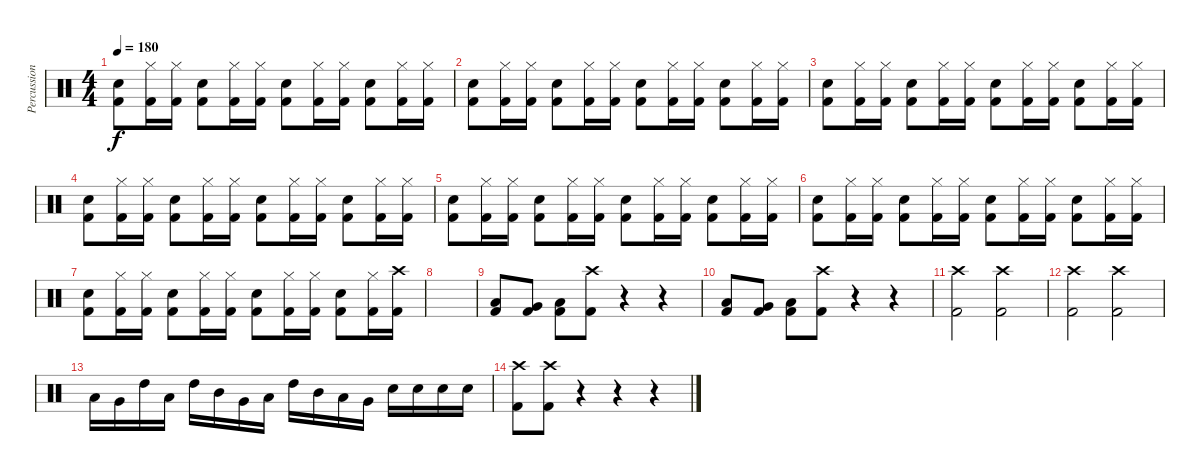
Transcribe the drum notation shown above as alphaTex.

\track ("Percussion" "Percussion") {instrument percussion}
\staff {score}
\articulation defaults
\ts (4 4)
\tempo 180
\clef neutral
\ks c
("Electric Snare (hit)" "Kick (hit) 2").8{dy f} ("Hi-Hat (closed)" "Kick (hit) 2").16 ("Hi-Hat (closed)" "Kick (hit) 2").16 ("Electric Snare (hit)" "Kick (hit) 2").8 ("Hi-Hat (closed)" "Kick (hit) 2").16 ("Hi-Hat (closed)" "Kick (hit) 2").16 ("Electric Snare (hit)" "Kick (hit) 2").8 ("Hi-Hat (closed)" "Kick (hit) 2").16 ("Hi-Hat (closed)" "Kick (hit) 2").16 ("Electric Snare (hit)" "Kick (hit) 2").8 ("Hi-Hat (closed)" "Kick (hit) 2").16 ("Hi-Hat (closed)" "Kick (hit) 2").16 |
("Electric Snare (hit)" "Kick (hit) 2").8 ("Hi-Hat (closed)" "Kick (hit) 2").16 ("Hi-Hat (closed)" "Kick (hit) 2").16 ("Electric Snare (hit)" "Kick (hit) 2").8 ("Hi-Hat (closed)" "Kick (hit) 2").16 ("Hi-Hat (closed)" "Kick (hit) 2").16 ("Electric Snare (hit)" "Kick (hit) 2").8 ("Hi-Hat (closed)" "Kick (hit) 2").16 ("Hi-Hat (closed)" "Kick (hit) 2").16 ("Electric Snare (hit)" "Kick (hit) 2").8 ("Hi-Hat (closed)" "Kick (hit) 2").16 ("Hi-Hat (closed)" "Kick (hit) 2").16 |
("Electric Snare (hit)" "Kick (hit) 2").8 ("Hi-Hat (closed)" "Kick (hit) 2").16 ("Hi-Hat (closed)" "Kick (hit) 2").16 ("Electric Snare (hit)" "Kick (hit) 2").8 ("Hi-Hat (closed)" "Kick (hit) 2").16 ("Hi-Hat (closed)" "Kick (hit) 2").16 ("Electric Snare (hit)" "Kick (hit) 2").8 ("Hi-Hat (closed)" "Kick (hit) 2").16 ("Hi-Hat (closed)" "Kick (hit) 2").16 ("Electric Snare (hit)" "Kick (hit) 2").8 ("Hi-Hat (closed)" "Kick (hit) 2").16 ("Hi-Hat (closed)" "Kick (hit) 2").16 |
("Electric Snare (hit)" "Kick (hit) 2").8 ("Hi-Hat (closed)" "Kick (hit) 2").16 ("Hi-Hat (closed)" "Kick (hit) 2").16 ("Electric Snare (hit)" "Kick (hit) 2").8 ("Hi-Hat (closed)" "Kick (hit) 2").16 ("Hi-Hat (closed)" "Kick (hit) 2").16 ("Electric Snare (hit)" "Kick (hit) 2").8 ("Hi-Hat (closed)" "Kick (hit) 2").16 ("Hi-Hat (closed)" "Kick (hit) 2").16 ("Electric Snare (hit)" "Kick (hit) 2").8 ("Hi-Hat (closed)" "Kick (hit) 2").16 ("Hi-Hat (closed)" "Kick (hit) 2").16 |
("Electric Snare (hit)" "Kick (hit) 2").8 ("Hi-Hat (closed)" "Kick (hit) 2").16 ("Hi-Hat (closed)" "Kick (hit) 2").16 ("Electric Snare (hit)" "Kick (hit) 2").8 ("Hi-Hat (closed)" "Kick (hit) 2").16 ("Hi-Hat (closed)" "Kick (hit) 2").16 ("Electric Snare (hit)" "Kick (hit) 2").8 ("Hi-Hat (closed)" "Kick (hit) 2").16 ("Hi-Hat (closed)" "Kick (hit) 2").16 ("Electric Snare (hit)" "Kick (hit) 2").8 ("Hi-Hat (closed)" "Kick (hit) 2").16 ("Hi-Hat (closed)" "Kick (hit) 2").16 |
("Electric Snare (hit)" "Kick (hit) 2").8 ("Hi-Hat (closed)" "Kick (hit) 2").16 ("Hi-Hat (closed)" "Kick (hit) 2").16 ("Electric Snare (hit)" "Kick (hit) 2").8 ("Hi-Hat (closed)" "Kick (hit) 2").16 ("Hi-Hat (closed)" "Kick (hit) 2").16 ("Electric Snare (hit)" "Kick (hit) 2").8 ("Hi-Hat (closed)" "Kick (hit) 2").16 ("Hi-Hat (closed)" "Kick (hit) 2").16 ("Electric Snare (hit)" "Kick (hit) 2").8 ("Hi-Hat (closed)" "Kick (hit) 2").16 ("Hi-Hat (closed)" "Kick (hit) 2").16 |
("Electric Snare (hit)" "Kick (hit) 2").8 ("Hi-Hat (closed)" "Kick (hit) 2").16 ("Hi-Hat (closed)" "Kick (hit) 2").16 ("Electric Snare (hit)" "Kick (hit) 2").8 ("Hi-Hat (closed)" "Kick (hit) 2").16 ("Hi-Hat (closed)" "Kick (hit) 2").16 ("Electric Snare (hit)" "Kick (hit) 2").8 ("Hi-Hat (closed)" "Kick (hit) 2").16 ("Hi-Hat (closed)" "Kick (hit) 2").16 ("Electric Snare (hit)" "Kick (hit) 2").8 ("Hi-Hat (closed)" "Kick (hit) 2").16 ("Crash high (hit)" "Kick (hit) 2").16 |
|
("Low Tom (hit)" "Kick (hit) 2").8 ("Very Low Tom (hit)" "Kick (hit) 2").8 ("Low Floor Tom (hit)" "Kick (hit) 2").8 ("Crash high (hit)" "Kick (hit) 2").8 r.4 r.4 |
("Low Tom (hit)" "Kick (hit) 2").8 ("Very Low Tom (hit)" "Kick (hit) 2").8 ("Low Floor Tom (hit)" "Kick (hit) 2").8 ("Crash high (hit)" "Kick (hit) 2").8 r.4 r.4 |
("Crash high (hit)" "Kick (hit) 2").2 ("Crash high (hit)" "Kick (hit) 2").2 |
("Crash high (hit)" "Kick (hit) 2").2 ("Crash high (hit)" "Kick (hit) 2").2 |
"Low Tom (hit)".16 "Very Low Tom (hit)".16 "High Tom (hit)".16 "Low Floor Tom (hit)".16 "High Tom (hit)".16 "Mid Tom (hit)".16 "Very Low Tom (hit)".16 "Low Floor Tom (hit)".16 "High Tom (hit)".16 "Mid Tom (hit)".16 "Low Tom (hit)".16 "Very Low Tom (hit)".16 "Electric Snare (hit)".16 "Electric Snare (hit)".16 "Electric Snare (hit)".16 "Electric Snare (hit)".16 |
("Crash high (hit)" "Kick (hit) 2").8 ("Crash high (hit)" "Kick (hit) 2").8 r.4 r.4 r.4
